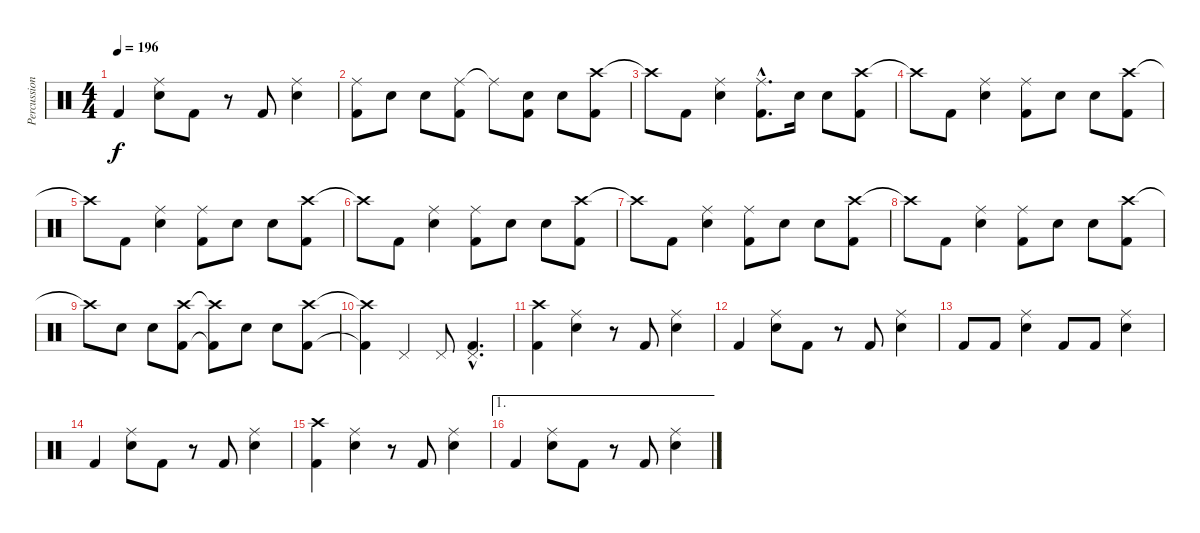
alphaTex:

\track ("Percussion" "Percussion") {instrument percussion}
\staff {score}
\articulation defaults
\ts (4 4)
\tempo 196
\clef neutral
\ks c "Kick (hit) 2".4{dy f}
("Ride (middle)" "Snare (hit) 2").8 "Kick (hit) 2".8 r.8 "Kick (hit) 2".8 ("Ride (middle)" "Snare (hit) 2").4 |
("Ride (middle)" "Kick (hit) 2").8 "Snare (hit) 2".8 "Snare (hit) 2".8 ("Ride (middle)" "Kick (hit) 2").8 "Ride (middle)"{t}.8 ("Snare (hit) 2" "Kick (hit) 2").8 "Snare (hit) 2".8 ("Crash high (hit)" "Kick (hit) 2").8 |
"Crash high (hit)"{t}.8 "Kick (hit) 2".8 ("Ride (middle)" "Snare (hit) 2").4 ("Ride (middle)"{hac} "Kick (hit) 2"{hac}).8{d} "Snare (hit) 2".16 "Snare (hit) 2".8 ("Crash high (hit)" "Kick (hit) 2").8 |
"Crash high (hit)"{t}.8 "Kick (hit) 2".8 ("Ride (middle)" "Snare (hit) 2").4 ("Ride (middle)" "Kick (hit) 2").8 "Snare (hit) 2".8 "Snare (hit) 2".8 ("Crash high (hit)" "Kick (hit) 2").8 |
"Crash high (hit)"{t}.8 "Kick (hit) 2".8 ("Ride (middle)" "Snare (hit) 2").4 ("Ride (middle)" "Kick (hit) 2").8 "Snare (hit) 2".8 "Snare (hit) 2".8 ("Crash high (hit)" "Kick (hit) 2").8 |
"Crash high (hit)"{t}.8 "Kick (hit) 2".8 ("Ride (middle)" "Snare (hit) 2").4 ("Ride (middle)" "Kick (hit) 2").8 "Snare (hit) 2".8 "Snare (hit) 2".8 ("Crash high (hit)" "Kick (hit) 2").8 |
"Crash high (hit)"{t}.8 "Kick (hit) 2".8 ("Ride (middle)" "Snare (hit) 2").4 ("Ride (middle)" "Kick (hit) 2").8 "Snare (hit) 2".8 "Snare (hit) 2".8 ("Crash high (hit)" "Kick (hit) 2").8 |
"Crash high (hit)"{t}.8 "Kick (hit) 2".8 ("Ride (middle)" "Snare (hit) 2").4 ("Ride (middle)" "Kick (hit) 2").8 "Snare (hit) 2".8 "Snare (hit) 2".8 ("Crash high (hit)" "Kick (hit) 2").8 |
"Crash high (hit)"{t}.8 "Snare (hit) 2".8 "Snare (hit) 2".8 ("Crash high (hit)" "Kick (hit) 2").8 ("Crash high (hit)"{t} "Kick (hit) 2"{t}).8 "Snare (hit) 2".8 "Snare (hit) 2".8 ("Crash high (hit)" "Kick (hit) 2").8 |
("Crash high (hit)"{t} "Kick (hit) 2"{t}).4 "Pedal Hi-Hat (hit)".4 "Pedal Hi-Hat (hit)".8 ("Pedal Hi-Hat (hit)"{hac} "Kick (hit) 2"{hac}).4{d} |
("Crash high (hit)" "Kick (hit) 2").4 ("Ride (middle)" "Snare (hit) 2").4 r.8 "Kick (hit) 2".8 ("Ride (middle)" "Snare (hit) 2").4 |
"Kick (hit) 2".4 ("Ride (middle)" "Snare (hit) 2").8 "Kick (hit) 2".8 r.8 "Kick (hit) 2".8 ("Ride (middle)" "Snare (hit) 2").4 |
"Kick (hit) 2".8 "Kick (hit) 2".8 ("Ride (middle)" "Snare (hit) 2").4 "Kick (hit) 2".8 "Kick (hit) 2".8 ("Ride (middle)" "Snare (hit) 2").4 |
"Kick (hit) 2".4 ("Ride (middle)" "Snare (hit) 2").8 "Kick (hit) 2".8 r.8 "Kick (hit) 2".8 ("Ride (middle)" "Snare (hit) 2").4 |
("Crash high (hit)" "Kick (hit) 2").4 ("Ride (middle)" "Snare (hit) 2").4 r.8 "Kick (hit) 2".8 ("Ride (middle)" "Snare (hit) 2").4 |
\ae 1 "Kick (hit) 2".4
("Ride (middle)" "Snare (hit) 2").8 "Kick (hit) 2".8 r.8 "Kick (hit) 2".8 ("Ride (middle)" "Snare (hit) 2").4
